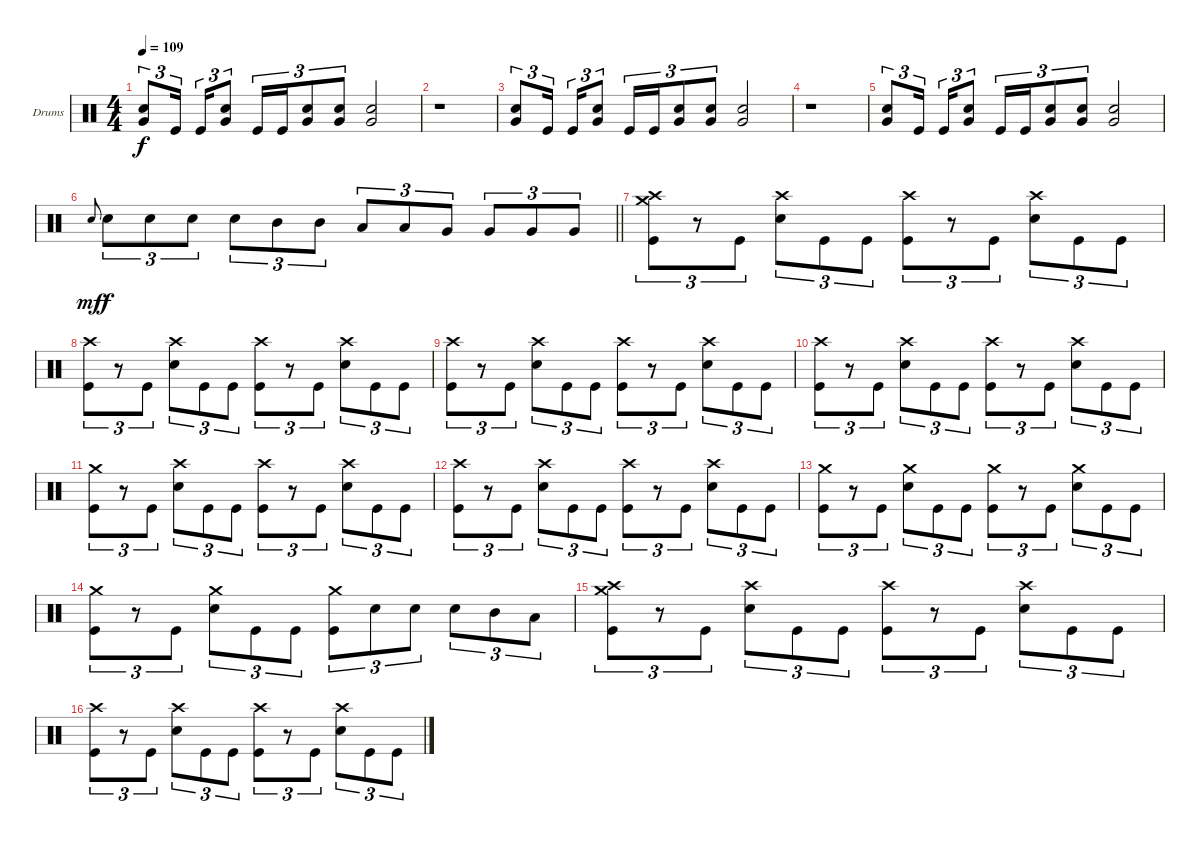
\bracketExtendMode groupsimilarinstruments
\firstSystemTrackNameOrientation horizontal
\otherSystemsTrackNameOrientation horizontal
\track ("Drumkit (Christoph)" "Drums") {instrument percussion}
\staff {score}
\articulation defaults
\ts (4 4)
\tempo 109
\clef neutral
\ks c
("Very Low Tom (hit)" "Snare (hit) 2").8{tu (3 2) dy f} "Kick (hit)".16{tu (3 2)} "Kick (hit)".16{tu (3 2)} ("Very Low Tom (hit)" "Snare (hit) 2").8{tu (3 2)} "Kick (hit)".16{tu (3 2)} "Kick (hit)".16{tu (3 2)} ("Very Low Tom (hit)" "Snare (hit) 2").8{tu (3 2)} ("Very Low Tom (hit)" "Snare (hit) 2").8{tu (3 2)} ("Very Low Tom (hit)" "Snare (hit) 2").2 |
r.1 |
("Very Low Tom (hit)" "Snare (hit) 2").8{tu (3 2)} "Kick (hit)".16{tu (3 2)} "Kick (hit)".16{tu (3 2)} ("Very Low Tom (hit)" "Snare (hit) 2").8{tu (3 2)} "Kick (hit)".16{tu (3 2)} "Kick (hit)".16{tu (3 2)} ("Very Low Tom (hit)" "Snare (hit) 2").8{tu (3 2)} ("Very Low Tom (hit)" "Snare (hit) 2").8{tu (3 2)} ("Very Low Tom (hit)" "Snare (hit) 2").2 |
r.1 |
("Very Low Tom (hit)" "Snare (hit) 2").8{tu (3 2)} "Kick (hit)".16{tu (3 2)} "Kick (hit)".16{tu (3 2)} ("Very Low Tom (hit)" "Snare (hit) 2").8{tu (3 2)} "Kick (hit)".16{tu (3 2)} "Kick (hit)".16{tu (3 2)} ("Very Low Tom (hit)" "Snare (hit) 2").8{tu (3 2)} ("Very Low Tom (hit)" "Snare (hit) 2").8{tu (3 2)} ("Very Low Tom (hit)" "Snare (hit) 2").2 |
\barLineRight lightlight "Snare (hit) 2".8{gr onbeat dy mf} "Snare (hit) 2".8{tu (3 2) dy f} "Snare (hit) 2".8{tu (3 2)} "Snare (hit) 2".8{tu (3 2)} "Snare (hit) 2".8{tu (3 2)} "Mid Tom (hit)".8{tu (3 2)} "Mid Tom (hit)".8{tu (3 2)} "Low Tom (hit)".8{tu (3 2)} "Low Tom (hit)".8{tu (3 2)} "Very Low Tom (hit)".8{tu (3 2)} "Very Low Tom (hit)".8{tu (3 2)} "Very Low Tom (hit)".8{tu (3 2)} "Very Low Tom (hit)".8{tu (3 2)}
|
("Crash high (hit)" "Crash medium (hit)" "Kick (hit)").8{tu (3 2)} r.8{tu (3 2)} "Kick (hit)".8{tu (3 2)} ("Crash high (hit)" "Snare (hit) 2").8{tu (3 2)} "Kick (hit)".8{tu (3 2)} "Kick (hit)".8{tu (3 2)} ("Crash high (hit)" "Kick (hit)").8{tu (3 2)} r.8{tu (3 2)} "Kick (hit)".8{tu (3 2)} ("Crash high (hit)" "Snare (hit) 2").8{tu (3 2)} "Kick (hit)".8{tu (3 2)} "Kick (hit)".8{tu (3 2)} |
("Crash high (hit)" "Kick (hit)").8{tu (3 2)} r.8{tu (3 2)} "Kick (hit)".8{tu (3 2)} ("Crash high (hit)" "Snare (hit) 2").8{tu (3 2)} "Kick (hit)".8{tu (3 2)} "Kick (hit)".8{tu (3 2)} ("Crash high (hit)" "Kick (hit)").8{tu (3 2)} r.8{tu (3 2)} "Kick (hit)".8{tu (3 2)} ("Crash high (hit)" "Snare (hit) 2").8{tu (3 2)} "Kick (hit)".8{tu (3 2)} "Kick (hit)".8{tu (3 2)} |
("Crash high (hit)" "Kick (hit)").8{tu (3 2)} r.8{tu (3 2)} "Kick (hit)".8{tu (3 2)} ("Crash high (hit)" "Snare (hit) 2").8{tu (3 2)} "Kick (hit)".8{tu (3 2)} "Kick (hit)".8{tu (3 2)} ("Crash high (hit)" "Kick (hit)").8{tu (3 2)} r.8{tu (3 2)} "Kick (hit)".8{tu (3 2)} ("Crash high (hit)" "Snare (hit) 2").8{tu (3 2)} "Kick (hit)".8{tu (3 2)} "Kick (hit)".8{tu (3 2)} |
("Crash high (hit)" "Kick (hit)").8{tu (3 2)} r.8{tu (3 2)} "Kick (hit)".8{tu (3 2)} ("Crash high (hit)" "Snare (hit) 2").8{tu (3 2)} "Kick (hit)".8{tu (3 2)} "Kick (hit)".8{tu (3 2)} ("Crash high (hit)" "Kick (hit)").8{tu (3 2)} r.8{tu (3 2)} "Kick (hit)".8{tu (3 2)} ("Crash high (hit)" "Snare (hit) 2").8{tu (3 2)} "Kick (hit)".8{tu (3 2)} "Kick (hit)".8{tu (3 2)} |
("Crash medium (hit)" "Kick (hit)").8{tu (3 2)} r.8{tu (3 2)} "Kick (hit)".8{tu (3 2)} ("Crash high (hit)" "Snare (hit) 2").8{tu (3 2)} "Kick (hit)".8{tu (3 2)} "Kick (hit)".8{tu (3 2)} ("Crash high (hit)" "Kick (hit)").8{tu (3 2)} r.8{tu (3 2)} "Kick (hit)".8{tu (3 2)} ("Crash high (hit)" "Snare (hit) 2").8{tu (3 2)} "Kick (hit)".8{tu (3 2)} "Kick (hit)".8{tu (3 2)} |
("Crash high (hit)" "Kick (hit)").8{tu (3 2)} r.8{tu (3 2)} "Kick (hit)".8{tu (3 2)} ("Crash high (hit)" "Snare (hit) 2").8{tu (3 2)} "Kick (hit)".8{tu (3 2)} "Kick (hit)".8{tu (3 2)} ("Crash high (hit)" "Kick (hit)").8{tu (3 2)} r.8{tu (3 2)} "Kick (hit)".8{tu (3 2)} ("Crash high (hit)" "Snare (hit) 2").8{tu (3 2)} "Kick (hit)".8{tu (3 2)} "Kick (hit)".8{tu (3 2)} |
("Crash medium (hit)" "Kick (hit)").8{tu (3 2)} r.8{tu (3 2)} "Kick (hit)".8{tu (3 2)} ("Crash medium (hit)" "Snare (hit) 2").8{tu (3 2)} "Kick (hit)".8{tu (3 2)} "Kick (hit)".8{tu (3 2)} ("Crash medium (hit)" "Kick (hit)").8{tu (3 2)} r.8{tu (3 2)} "Kick (hit)".8{tu (3 2)} ("Crash medium (hit)" "Snare (hit) 2").8{tu (3 2)} "Kick (hit)".8{tu (3 2)} "Kick (hit)".8{tu (3 2)} |
("Crash medium (hit)" "Kick (hit)").8{tu (3 2)} r.8{tu (3 2)} "Kick (hit)".8{tu (3 2)} ("Crash medium (hit)" "Snare (hit) 2").8{tu (3 2)} "Kick (hit)".8{tu (3 2)} "Kick (hit)".8{tu (3 2)} ("Crash medium (hit)" "Kick (hit)").8{tu (3 2)} "Snare (hit) 2".8{tu (3 2)} "Snare (hit) 2".8{tu (3 2)} "Snare (hit) 2".8{tu (3 2)} "Mid Tom (hit)".8{tu (3 2)} "Low Tom (hit)".8{tu (3 2)} |
("Crash high (hit)" "Crash medium (hit)" "Kick (hit)").8{tu (3 2)} r.8{tu (3 2)} "Kick (hit)".8{tu (3 2)} ("Crash high (hit)" "Snare (hit) 2").8{tu (3 2)} "Kick (hit)".8{tu (3 2)} "Kick (hit)".8{tu (3 2)} ("Crash high (hit)" "Kick (hit)").8{tu (3 2)} r.8{tu (3 2)} "Kick (hit)".8{tu (3 2)} ("Crash high (hit)" "Snare (hit) 2").8{tu (3 2)} "Kick (hit)".8{tu (3 2)} "Kick (hit)".8{tu (3 2)} |
("Crash high (hit)" "Kick (hit)").8{tu (3 2)} r.8{tu (3 2)} "Kick (hit)".8{tu (3 2)} ("Crash high (hit)" "Snare (hit) 2").8{tu (3 2)} "Kick (hit)".8{tu (3 2)} "Kick (hit)".8{tu (3 2)} ("Crash high (hit)" "Kick (hit)").8{tu (3 2)} r.8{tu (3 2)} "Kick (hit)".8{tu (3 2)} ("Crash high (hit)" "Snare (hit) 2").8{tu (3 2)} "Kick (hit)".8{tu (3 2)} "Kick (hit)".8{tu (3 2)}
